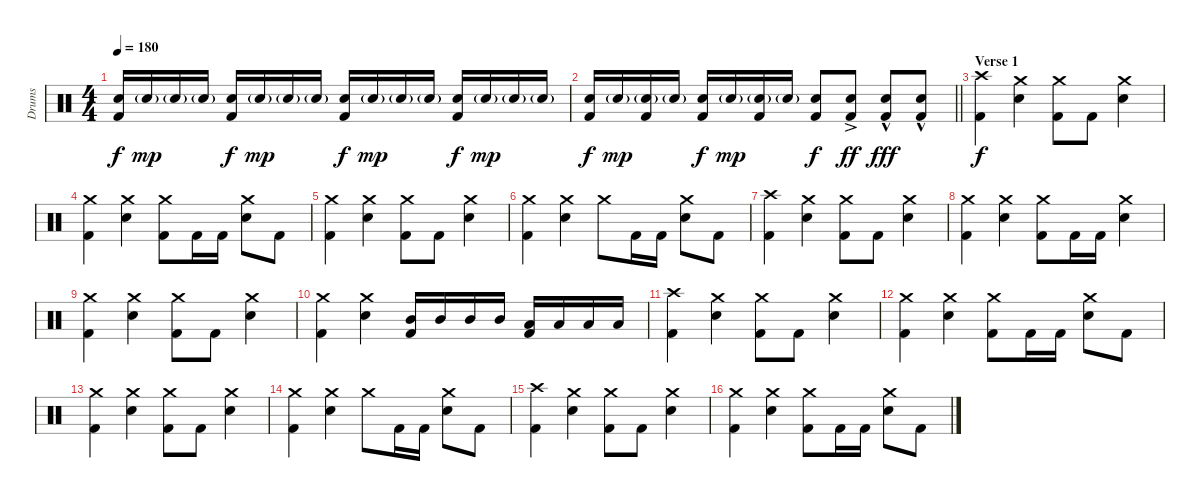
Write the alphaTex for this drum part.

\track ("Drums" "Drums") {instrument percussion}
\staff {score}
\articulation defaults
\ts (4 4)
\tempo 180
\clef neutral
\ks c
("Snare (hit) 2" "Kick (hit) 2").16{dy f} "Snare (hit) 2"{g}.16{dy mp} "Snare (hit) 2"{g}.16 "Snare (hit) 2"{g}.16 ("Snare (hit) 2" "Kick (hit) 2").16{dy f} "Snare (hit) 2"{g}.16{dy mp} "Snare (hit) 2"{g}.16 "Snare (hit) 2"{g}.16 ("Snare (hit) 2" "Kick (hit) 2").16{dy f} "Snare (hit) 2"{g}.16{dy mp} "Snare (hit) 2"{g}.16 "Snare (hit) 2"{g}.16 ("Snare (hit) 2" "Kick (hit) 2").16{dy f} "Snare (hit) 2"{g}.16{dy mp} "Snare (hit) 2"{g}.16 "Snare (hit) 2"{g}.16 |
\barLineRight lightlight
("Snare (hit) 2" "Kick (hit) 2").16{dy f} "Snare (hit) 2"{g}.16{dy mp} ("Snare (hit) 2"{g} "Kick (hit) 2").16 "Snare (hit) 2"{g}.16 ("Snare (hit) 2" "Kick (hit) 2").16{dy f} "Snare (hit) 2"{g}.16{dy mp} ("Snare (hit) 2"{g} "Kick (hit) 2").16 "Snare (hit) 2"{g}.16 ("Snare (hit) 2" "Kick (hit) 2").8{dy f} ("Snare (hit) 2"{ac} "Kick (hit) 2").8{dy ff} ("Snare (hit) 2"{hac} "Kick (hit) 2").8{dy fff} ("Snare (hit) 2"{hac} "Kick (hit) 2").8 |
\section ("" "Verse 1")
("Crash high (hit)" "Kick (hit) 2").4{dy f} ("Crash medium (hit)" "Snare (hit) 2").4 ("Crash medium (hit)" "Kick (hit) 2").8 "Kick (hit) 2".8 ("Crash medium (hit)" "Snare (hit) 2").4 |
("Crash medium (hit)" "Kick (hit) 2").4 ("Crash medium (hit)" "Snare (hit) 2").4 ("Crash medium (hit)" "Kick (hit) 2").8 "Kick (hit) 2".16 "Kick (hit) 2".16 ("Crash medium (hit)" "Snare (hit) 2").8 "Kick (hit) 2".8 |
("Crash medium (hit)" "Kick (hit) 2").4 ("Crash medium (hit)" "Snare (hit) 2").4 ("Crash medium (hit)" "Kick (hit) 2").8 "Kick (hit) 2".8 ("Crash medium (hit)" "Snare (hit) 2").4 |
("Crash medium (hit)" "Kick (hit) 2").4 ("Crash medium (hit)" "Snare (hit) 2").4 "Crash medium (hit)".8 "Kick (hit) 2".16 "Kick (hit) 2".16 ("Crash medium (hit)" "Snare (hit) 2").8 "Kick (hit) 2".8 |
("Crash high (hit)" "Kick (hit) 2").4 ("Crash medium (hit)" "Snare (hit) 2").4 ("Crash medium (hit)" "Kick (hit) 2").8 "Kick (hit) 2".8 ("Crash medium (hit)" "Snare (hit) 2").4 |
("Crash medium (hit)" "Kick (hit) 2").4 ("Crash medium (hit)" "Snare (hit) 2").4 ("Crash medium (hit)" "Kick (hit) 2").8 "Kick (hit) 2".16 "Kick (hit) 2".16 ("Crash medium (hit)" "Snare (hit) 2").4 |
("Crash medium (hit)" "Kick (hit) 2").4 ("Crash medium (hit)" "Snare (hit) 2").4 ("Crash medium (hit)" "Kick (hit) 2").8 "Kick (hit) 2".8 ("Crash medium (hit)" "Snare (hit) 2").4 |
("Crash medium (hit)" "Kick (hit) 2").4 ("Crash medium (hit)" "Snare (hit) 2").4 ("Mid Tom (hit)" "Kick (hit) 2").16 "Mid Tom (hit)".16 "Mid Tom (hit)".16 "Mid Tom (hit)".16 ("Low Tom (hit)" "Kick (hit) 2").16 "Low Tom (hit)".16 "Low Tom (hit)".16 "Low Tom (hit)".16 |
("Crash high (hit)" "Kick (hit) 2").4 ("Crash medium (hit)" "Snare (hit) 2").4 ("Crash medium (hit)" "Kick (hit) 2").8 "Kick (hit) 2".8 ("Crash medium (hit)" "Snare (hit) 2").4 |
("Crash medium (hit)" "Kick (hit) 2").4 ("Crash medium (hit)" "Snare (hit) 2").4 ("Crash medium (hit)" "Kick (hit) 2").8 "Kick (hit) 2".16 "Kick (hit) 2".16 ("Crash medium (hit)" "Snare (hit) 2").8 "Kick (hit) 2".8 |
("Crash medium (hit)" "Kick (hit) 2").4 ("Crash medium (hit)" "Snare (hit) 2").4 ("Crash medium (hit)" "Kick (hit) 2").8 "Kick (hit) 2".8 ("Crash medium (hit)" "Snare (hit) 2").4 |
("Crash medium (hit)" "Kick (hit) 2").4 ("Crash medium (hit)" "Snare (hit) 2").4 "Crash medium (hit)".8 "Kick (hit) 2".16 "Kick (hit) 2".16 ("Crash medium (hit)" "Snare (hit) 2").8 "Kick (hit) 2".8 |
("Crash high (hit)" "Kick (hit) 2").4 ("Crash medium (hit)" "Snare (hit) 2").4 ("Crash medium (hit)" "Kick (hit) 2").8 "Kick (hit) 2".8 ("Crash medium (hit)" "Snare (hit) 2").4 |
("Crash medium (hit)" "Kick (hit) 2").4 ("Crash medium (hit)" "Snare (hit) 2").4 ("Crash medium (hit)" "Kick (hit) 2").8 "Kick (hit) 2".16 "Kick (hit) 2".16 ("Crash medium (hit)" "Snare (hit) 2").8 "Kick (hit) 2".8
